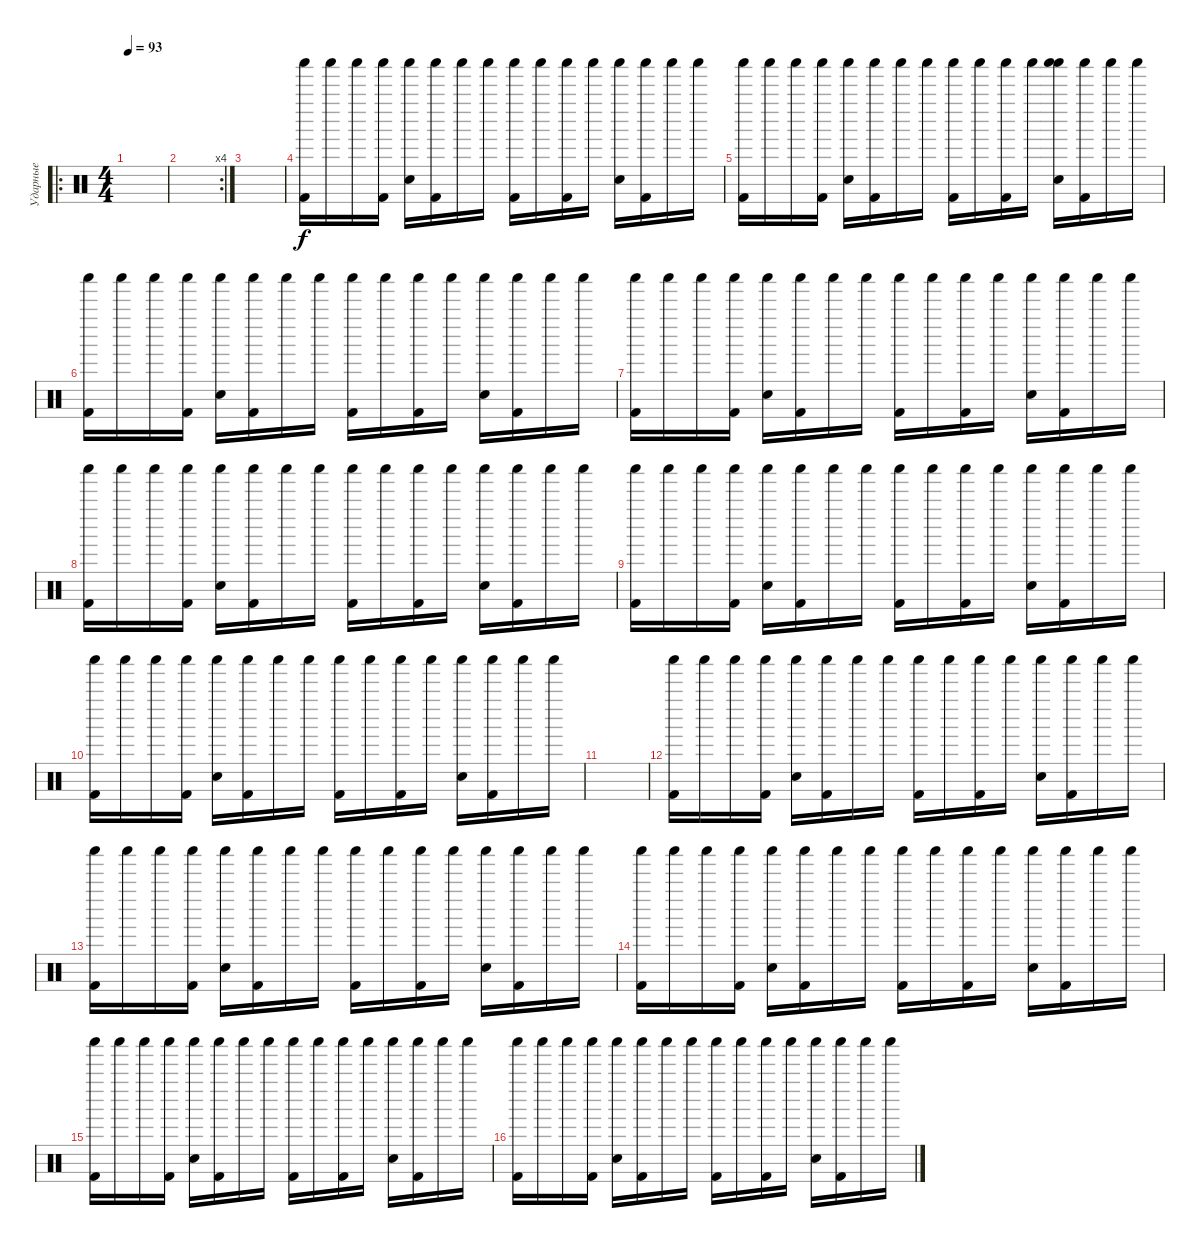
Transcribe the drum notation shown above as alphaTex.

\track ("Ударные" "Ударные") {instrument percussion}
\staff {score}
\articulation defaults
\ro
\ts (4 4)
\tempo 93
\clef neutral
\ks c
|
\rc 4
|
|
("Kick (hit) 2" "Shaker (hit)").16 "Shaker (hit)".16 "Shaker (hit)".16 ("Kick (hit) 2" "Shaker (hit)").16 ("Snare (hit) 2" "Shaker (hit)").16 ("Kick (hit) 2" "Shaker (hit)").16 "Shaker (hit)".16 "Shaker (hit)".16 ("Kick (hit) 2" "Shaker (hit)").16 "Shaker (hit)".16 ("Kick (hit) 2" "Shaker (hit)").16 "Shaker (hit)".16 ("Snare (hit) 2" "Shaker (hit)").16 ("Kick (hit) 2" "Shaker (hit)").16 "Shaker (hit)".16 "Shaker (hit)".16 |
("Kick (hit) 2" "Shaker (hit)").16 "Shaker (hit)".16 "Shaker (hit)".16 ("Kick (hit) 2" "Shaker (hit)").16 ("Snare (hit) 2" "Shaker (hit)").16 ("Kick (hit) 2" "Shaker (hit)").16 "Shaker (hit)".16 "Shaker (hit)".16 ("Kick (hit) 2" "Shaker (hit)").16 "Shaker (hit)".16 ("Kick (hit) 2" "Shaker (hit)").16 "Shaker (hit)".16 ("Shaker (hit)" "Snare (hit) 2" "Shaker (hit)").16 ("Kick (hit) 2" "Shaker (hit)").16 "Shaker (hit)".16 "Shaker (hit)".16 |
("Kick (hit) 2" "Shaker (hit)").16 "Shaker (hit)".16 "Shaker (hit)".16 ("Kick (hit) 2" "Shaker (hit)").16 ("Snare (hit) 2" "Shaker (hit)").16 ("Kick (hit) 2" "Shaker (hit)").16 "Shaker (hit)".16 "Shaker (hit)".16 ("Kick (hit) 2" "Shaker (hit)").16 "Shaker (hit)".16 ("Kick (hit) 2" "Shaker (hit)").16 "Shaker (hit)".16 ("Snare (hit) 2" "Shaker (hit)").16 ("Kick (hit) 2" "Shaker (hit)").16 "Shaker (hit)".16 "Shaker (hit)".16 |
("Kick (hit) 2" "Shaker (hit)").16 "Shaker (hit)".16 "Shaker (hit)".16 ("Kick (hit) 2" "Shaker (hit)").16 ("Snare (hit) 2" "Shaker (hit)").16 ("Kick (hit) 2" "Shaker (hit)").16 "Shaker (hit)".16 "Shaker (hit)".16 ("Kick (hit) 2" "Shaker (hit)").16 "Shaker (hit)".16 ("Kick (hit) 2" "Shaker (hit)").16 "Shaker (hit)".16 ("Snare (hit) 2" "Shaker (hit)").16 ("Kick (hit) 2" "Shaker (hit)").16 "Shaker (hit)".16 "Shaker (hit)".16 |
("Kick (hit) 2" "Shaker (hit)").16 "Shaker (hit)".16 "Shaker (hit)".16 ("Kick (hit) 2" "Shaker (hit)").16 ("Snare (hit) 2" "Shaker (hit)").16 ("Kick (hit) 2" "Shaker (hit)").16 "Shaker (hit)".16 "Shaker (hit)".16 ("Kick (hit) 2" "Shaker (hit)").16 "Shaker (hit)".16 ("Kick (hit) 2" "Shaker (hit)").16 "Shaker (hit)".16 ("Snare (hit) 2" "Shaker (hit)").16 ("Kick (hit) 2" "Shaker (hit)").16 "Shaker (hit)".16 "Shaker (hit)".16 |
("Kick (hit) 2" "Shaker (hit)").16 "Shaker (hit)".16 "Shaker (hit)".16 ("Kick (hit) 2" "Shaker (hit)").16 ("Snare (hit) 2" "Shaker (hit)").16 ("Kick (hit) 2" "Shaker (hit)").16 "Shaker (hit)".16 "Shaker (hit)".16 ("Kick (hit) 2" "Shaker (hit)").16 "Shaker (hit)".16 ("Kick (hit) 2" "Shaker (hit)").16 "Shaker (hit)".16 ("Snare (hit) 2" "Shaker (hit)").16 ("Kick (hit) 2" "Shaker (hit)").16 "Shaker (hit)".16 "Shaker (hit)".16 |
("Kick (hit) 2" "Shaker (hit)").16 "Shaker (hit)".16 "Shaker (hit)".16 ("Kick (hit) 2" "Shaker (hit)").16 ("Snare (hit) 2" "Shaker (hit)").16 ("Kick (hit) 2" "Shaker (hit)").16 "Shaker (hit)".16 "Shaker (hit)".16 ("Kick (hit) 2" "Shaker (hit)").16 "Shaker (hit)".16 ("Kick (hit) 2" "Shaker (hit)").16 "Shaker (hit)".16 ("Snare (hit) 2" "Shaker (hit)").16 ("Kick (hit) 2" "Shaker (hit)").16 "Shaker (hit)".16 "Shaker (hit)".16 |
|
("Kick (hit) 2" "Shaker (hit)").16 "Shaker (hit)".16 "Shaker (hit)".16 ("Kick (hit) 2" "Shaker (hit)").16 ("Snare (hit) 2" "Shaker (hit)").16 ("Kick (hit) 2" "Shaker (hit)").16 "Shaker (hit)".16 "Shaker (hit)".16 ("Kick (hit) 2" "Shaker (hit)").16 "Shaker (hit)".16 ("Kick (hit) 2" "Shaker (hit)").16 "Shaker (hit)".16 ("Snare (hit) 2" "Shaker (hit)").16 ("Kick (hit) 2" "Shaker (hit)").16 "Shaker (hit)".16 "Shaker (hit)".16 |
("Kick (hit) 2" "Shaker (hit)").16 "Shaker (hit)".16 "Shaker (hit)".16 ("Kick (hit) 2" "Shaker (hit)").16 ("Snare (hit) 2" "Shaker (hit)").16 ("Kick (hit) 2" "Shaker (hit)").16 "Shaker (hit)".16 "Shaker (hit)".16 ("Kick (hit) 2" "Shaker (hit)").16 "Shaker (hit)".16 ("Kick (hit) 2" "Shaker (hit)").16 "Shaker (hit)".16 ("Snare (hit) 2" "Shaker (hit)").16 ("Kick (hit) 2" "Shaker (hit)").16 "Shaker (hit)".16 "Shaker (hit)".16 |
("Kick (hit) 2" "Shaker (hit)").16 "Shaker (hit)".16 "Shaker (hit)".16 ("Kick (hit) 2" "Shaker (hit)").16 ("Snare (hit) 2" "Shaker (hit)").16 ("Kick (hit) 2" "Shaker (hit)").16 "Shaker (hit)".16 "Shaker (hit)".16 ("Kick (hit) 2" "Shaker (hit)").16 "Shaker (hit)".16 ("Kick (hit) 2" "Shaker (hit)").16 "Shaker (hit)".16 ("Snare (hit) 2" "Shaker (hit)").16 ("Kick (hit) 2" "Shaker (hit)").16 "Shaker (hit)".16 "Shaker (hit)".16 |
("Kick (hit) 2" "Shaker (hit)").16 "Shaker (hit)".16 "Shaker (hit)".16 ("Kick (hit) 2" "Shaker (hit)").16 ("Snare (hit) 2" "Shaker (hit)").16 ("Kick (hit) 2" "Shaker (hit)").16 "Shaker (hit)".16 "Shaker (hit)".16 ("Kick (hit) 2" "Shaker (hit)").16 "Shaker (hit)".16 ("Kick (hit) 2" "Shaker (hit)").16 "Shaker (hit)".16 ("Snare (hit) 2" "Shaker (hit)").16 ("Kick (hit) 2" "Shaker (hit)").16 "Shaker (hit)".16 "Shaker (hit)".16 |
("Kick (hit) 2" "Shaker (hit)").16 "Shaker (hit)".16 "Shaker (hit)".16 ("Kick (hit) 2" "Shaker (hit)").16 ("Snare (hit) 2" "Shaker (hit)").16 ("Kick (hit) 2" "Shaker (hit)").16 "Shaker (hit)".16 "Shaker (hit)".16 ("Kick (hit) 2" "Shaker (hit)").16 "Shaker (hit)".16 ("Kick (hit) 2" "Shaker (hit)").16 "Shaker (hit)".16 ("Snare (hit) 2" "Shaker (hit)").16 ("Kick (hit) 2" "Shaker (hit)").16 "Shaker (hit)".16 "Shaker (hit)".16
